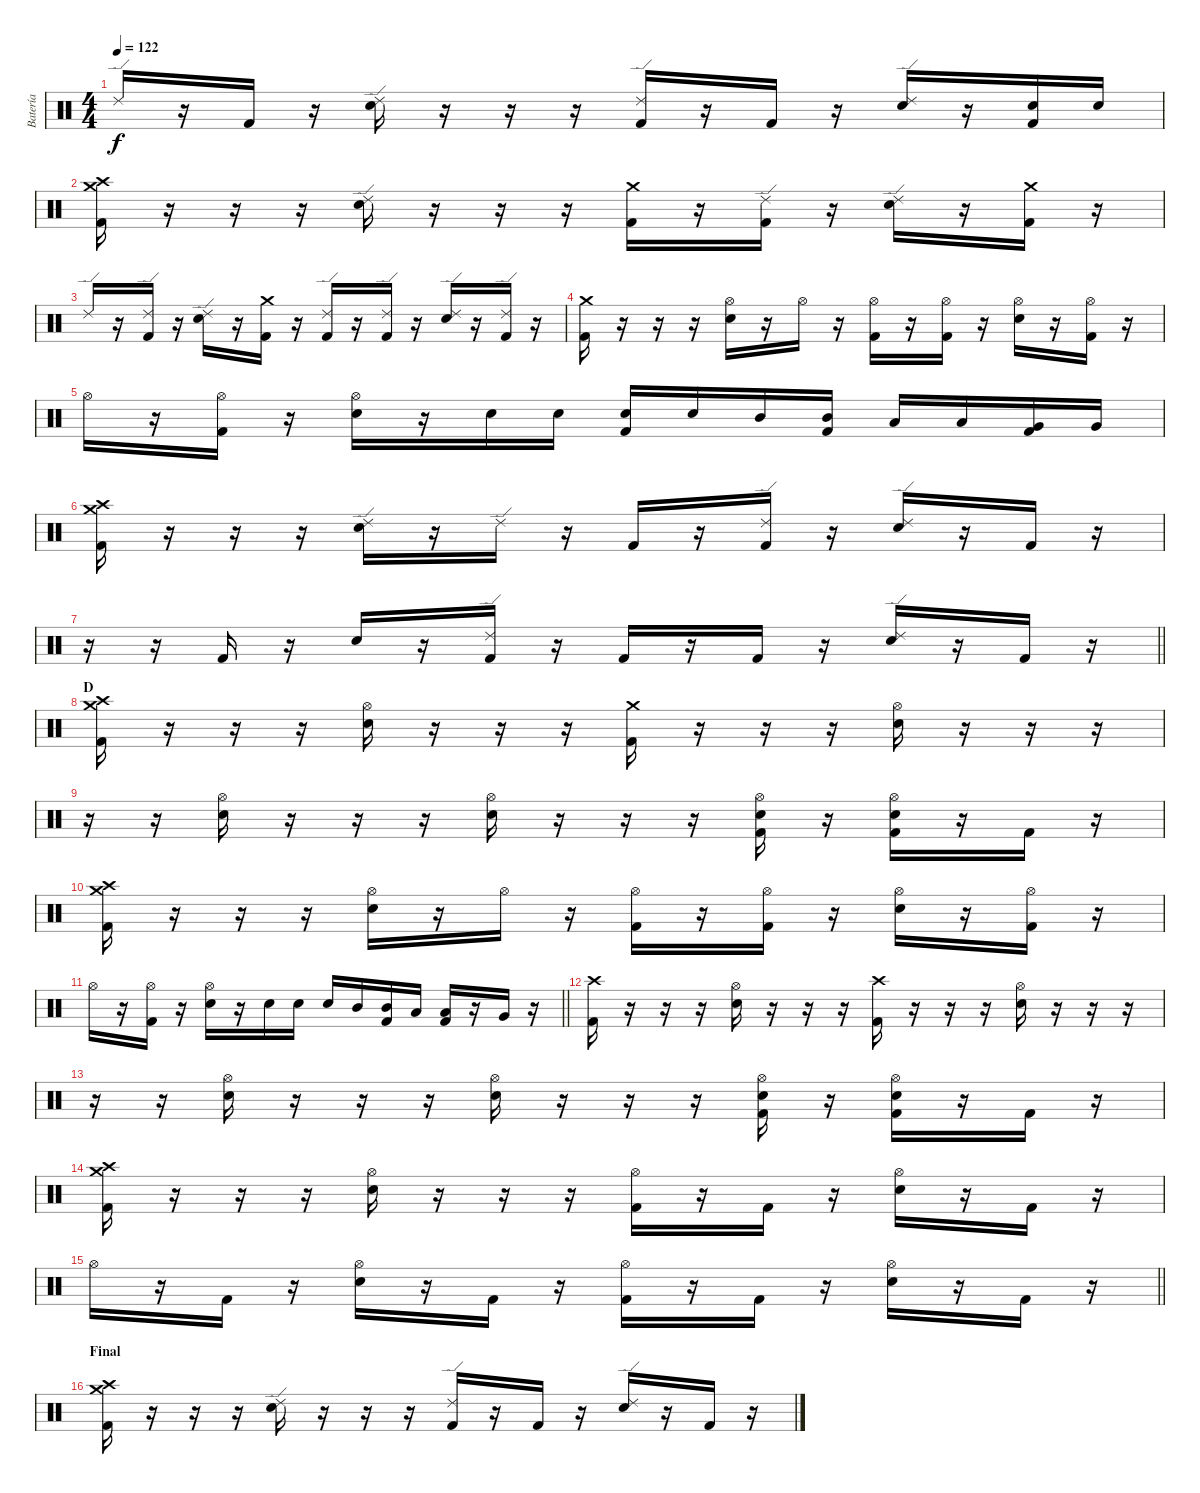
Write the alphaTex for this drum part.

\track ("Batería" "Batería") {instrument percussion}
\staff {score}
\articulation defaults
\ts (4 4)
\tempo 122
\clef neutral
\ks c "Ride (edge) 2".16{dy f}
r.16 "Kick (hit) 2".16 r.16 ("Electric Snare (hit)" "Ride (edge) 2").16 r.16 r.16 r.16 ("Kick (hit) 2" "Ride (edge) 2").16 r.16 "Kick (hit) 2".16 r.16 ("Electric Snare (hit)" "Ride (edge) 2").16 r.16 ("Electric Snare (hit)" "Kick (hit) 2").16 "Electric Snare (hit)".16 |
("Crash high (hit)" "Kick (hit) 2" "Crash medium (hit)").16 r.16 r.16 r.16 ("Electric Snare (hit)" "Ride (edge) 2").16 r.16 r.16 r.16 ("Kick (hit) 2" "Crash medium (hit)").16 r.16 ("Kick (hit) 2" "Ride (edge) 2").16 r.16 ("Electric Snare (hit)" "Ride (edge) 2").16 r.16 ("Kick (hit) 2" "Crash medium (hit)").16 r.16 |
"Ride (edge) 2".16 r.16 ("Kick (hit) 2" "Ride (edge) 2").16 r.16 ("Electric Snare (hit)" "Ride (edge) 2").16 r.16 ("Kick (hit) 2" "Crash medium (hit)").16 r.16 ("Kick (hit) 2" "Ride (edge) 2").16 r.16 ("Kick (hit) 2" "Ride (edge) 2").16 r.16 ("Electric Snare (hit)" "Ride (edge) 2").16 r.16 ("Kick (hit) 2" "Ride (edge) 2").16 r.16 |
("Kick (hit) 2" "Crash medium (hit)").16 r.16 r.16 r.16 ("Electric Snare (hit)" "Hi-Hat (open)").16 r.16 "Hi-Hat (open)".16 r.16 ("Kick (hit) 2" "Hi-Hat (open)").16 r.16 ("Kick (hit) 2" "Hi-Hat (open)").16 r.16 ("Electric Snare (hit)" "Hi-Hat (open)").16 r.16 ("Kick (hit) 2" "Hi-Hat (open)").16 r.16 |
"Hi-Hat (open)".16 r.16 ("Kick (hit) 2" "Hi-Hat (open)").16 r.16 ("Electric Snare (hit)" "Hi-Hat (open)").16 r.16 "Electric Snare (hit)".16 "Electric Snare (hit)".16 ("Electric Snare (hit)" "Kick (hit) 2").16 "Electric Snare (hit)".16 "Mid Tom (hit)".16 ("Mid Tom (hit)" "Kick (hit) 2").16 "Low Tom (hit)".16 "Low Tom (hit)".16 ("Very Low Tom (hit)" "Kick (hit) 2").16 "Very Low Tom (hit)".16 |
("Crash high (hit)" "Kick (hit) 2" "Crash medium (hit)").16 r.16 r.16 r.16 ("Electric Snare (hit)" "Ride (edge) 2").16 r.16 "Ride (edge) 2".16 r.16 "Kick (hit) 2".16 r.16 ("Kick (hit) 2" "Ride (edge) 2").16 r.16 ("Electric Snare (hit)" "Ride (edge) 2").16 r.16 "Kick (hit) 2".16 r.16 |
\barLineRight lightlight
r.16 r.16 "Kick (hit) 2".16 r.16 "Electric Snare (hit)".16 r.16 ("Kick (hit) 2" "Ride (edge) 2").16 r.16 "Kick (hit) 2".16 r.16 "Kick (hit) 2".16 r.16 ("Electric Snare (hit)" "Ride (edge) 2").16 r.16 "Kick (hit) 2".16 r.16 |
\section ("" "D")
("Crash medium (hit)" "Kick (hit) 2" "Crash high (hit)").16 r.16 r.16 r.16 ("Electric Snare (hit)" "Hi-Hat (open)").16 r.16 r.16 r.16 ("Kick (hit) 2" "Crash medium (hit)").16 r.16 r.16 r.16 ("Electric Snare (hit)" "Hi-Hat (open)").16 r.16 r.16 r.16 |
r.16 r.16 ("Electric Snare (hit)" "Hi-Hat (open)").16 r.16 r.16 r.16 ("Electric Snare (hit)" "Hi-Hat (open)").16 r.16 r.16 r.16 ("Electric Snare (hit)" "Kick (hit) 2" "Hi-Hat (open)").16 r.16 ("Electric Snare (hit)" "Kick (hit) 2" "Hi-Hat (open)").16 r.16 "Kick (hit) 2".16 r.16 |
("Crash high (hit)" "Kick (hit) 2" "Crash medium (hit)").16 r.16 r.16 r.16 ("Electric Snare (hit)" "Hi-Hat (open)").16 r.16 "Hi-Hat (open)".16 r.16 ("Kick (hit) 2" "Hi-Hat (open)").16 r.16 ("Kick (hit) 2" "Hi-Hat (open)").16 r.16 ("Electric Snare (hit)" "Hi-Hat (open)").16 r.16 ("Kick (hit) 2" "Hi-Hat (open)").16 r.16 |
\barLineRight lightlight "Hi-Hat (open)".16
r.16 ("Kick (hit) 2" "Hi-Hat (open)").16 r.16 ("Electric Snare (hit)" "Hi-Hat (open)").16 r.16 "Electric Snare (hit)".16 "Electric Snare (hit)".16 "Electric Snare (hit)".16 "Mid Tom (hit)".16 ("Mid Tom (hit)" "Kick (hit) 2").16 "Low Tom (hit)".16 ("Low Tom (hit)" "Kick (hit) 2").16 r.16 "Very Low Tom (hit)".16 r.16 |
("Kick (hit) 2" "Crash high (hit)").16 r.16 r.16 r.16 ("Electric Snare (hit)" "Hi-Hat (open)").16 r.16 r.16 r.16 ("Kick (hit) 2" "Crash high (hit)").16 r.16 r.16 r.16 ("Electric Snare (hit)" "Hi-Hat (open)").16 r.16 r.16 r.16 |
r.16 r.16 ("Electric Snare (hit)" "Hi-Hat (open)").16 r.16 r.16 r.16 ("Electric Snare (hit)" "Hi-Hat (open)").16 r.16 r.16 r.16 ("Electric Snare (hit)" "Kick (hit) 2" "Hi-Hat (open)").16 r.16 ("Electric Snare (hit)" "Kick (hit) 2" "Hi-Hat (open)").16 r.16 "Kick (hit) 2".16 r.16 |
("Crash medium (hit)" "Kick (hit) 2" "Crash high (hit)").16 r.16 r.16 r.16 ("Electric Snare (hit)" "Hi-Hat (open)").16 r.16 r.16 r.16 ("Kick (hit) 2" "Hi-Hat (open)").16 r.16 "Kick (hit) 2".16 r.16 ("Electric Snare (hit)" "Hi-Hat (open)").16 r.16 "Kick (hit) 2".16 r.16 |
\barLineRight lightlight "Hi-Hat (open)".16
r.16 "Kick (hit) 2".16 r.16 ("Electric Snare (hit)" "Hi-Hat (open)").16 r.16 "Kick (hit) 2".16 r.16 ("Kick (hit) 2" "Hi-Hat (open)").16 r.16 "Kick (hit) 2".16 r.16 ("Electric Snare (hit)" "Hi-Hat (open)").16 r.16 "Kick (hit) 2".16 r.16 |
\section ("" "Final")
("Crash medium (hit)" "Kick (hit) 2" "Crash high (hit)").16 r.16 r.16 r.16 ("Electric Snare (hit)" "Ride (edge) 2").16 r.16 r.16 r.16 ("Kick (hit) 2" "Ride (edge) 2").16 r.16 "Kick (hit) 2".16 r.16 ("Electric Snare (hit)" "Ride (edge) 2").16 r.16 "Kick (hit) 2".16 r.16
